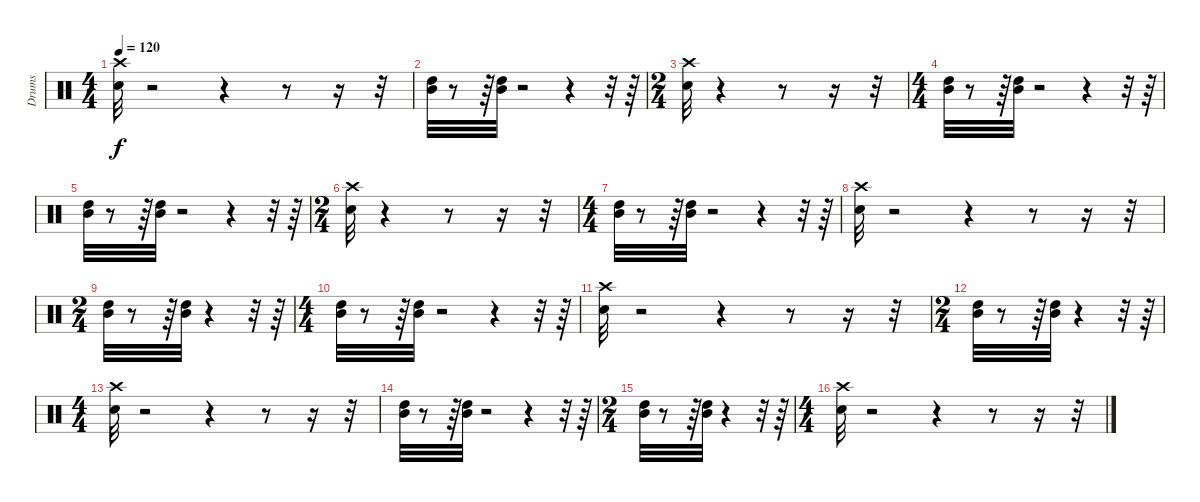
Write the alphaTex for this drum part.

\track ("Drums" "Drums") {instrument percussion}
\staff {score}
\articulation defaults
\ts (4 4)
\tempo 120
\clef neutral
\ks c
("Snare (hit) 2" "Crash high (hit)").32{dy f} r.2 r.4 r.8 r.16 r.32 |
("Mid Tom (hit)" "High Tom (hit)").32 r.8 r.64 ("Mid Tom (hit)" "High Tom (hit)").32 r.2 r.4 r.32 r.64 |
\ts (2 4)
("Snare (hit) 2" "Crash high (hit)").32 r.4 r.8 r.16 r.32 |
\ts (4 4)
("Mid Tom (hit)" "High Tom (hit)").32 r.8 r.64 ("Mid Tom (hit)" "High Tom (hit)").32 r.2 r.4 r.32 r.64 |
("Mid Tom (hit)" "High Tom (hit)").32 r.8 r.64 ("Mid Tom (hit)" "High Tom (hit)").32 r.2 r.4 r.32 r.64 |
\ts (2 4)
("Snare (hit) 2" "Crash high (hit)").32 r.4 r.8 r.16 r.32 |
\ts (4 4)
("Mid Tom (hit)" "High Tom (hit)").32 r.8 r.64 ("Mid Tom (hit)" "High Tom (hit)").32 r.2 r.4 r.32 r.64 |
("Snare (hit) 2" "Crash high (hit)").32 r.2 r.4 r.8 r.16 r.32 |
\ts (2 4)
("Mid Tom (hit)" "High Tom (hit)").32 r.8 r.64 ("Mid Tom (hit)" "High Tom (hit)").32 r.4 r.32 r.64 |
\ts (4 4)
("Mid Tom (hit)" "High Tom (hit)").32 r.8 r.64 ("Mid Tom (hit)" "High Tom (hit)").32 r.2 r.4 r.32 r.64 |
("Snare (hit) 2" "Crash high (hit)").32 r.2 r.4 r.8 r.16 r.32 |
\ts (2 4)
("Mid Tom (hit)" "High Tom (hit)").32 r.8 r.64 ("Mid Tom (hit)" "High Tom (hit)").32 r.4 r.32 r.64 |
\ts (4 4)
("Snare (hit) 2" "Crash high (hit)").32 r.2 r.4 r.8 r.16 r.32 |
("Mid Tom (hit)" "High Tom (hit)").32 r.8 r.64 ("Mid Tom (hit)" "High Tom (hit)").32 r.2 r.4 r.32 r.64 |
\ts (2 4)
("Mid Tom (hit)" "High Tom (hit)").32 r.8 r.64 ("Mid Tom (hit)" "High Tom (hit)").32 r.4 r.32 r.64 |
\ts (4 4)
("Snare (hit) 2" "Crash high (hit)").32 r.2 r.4 r.8 r.16 r.32
